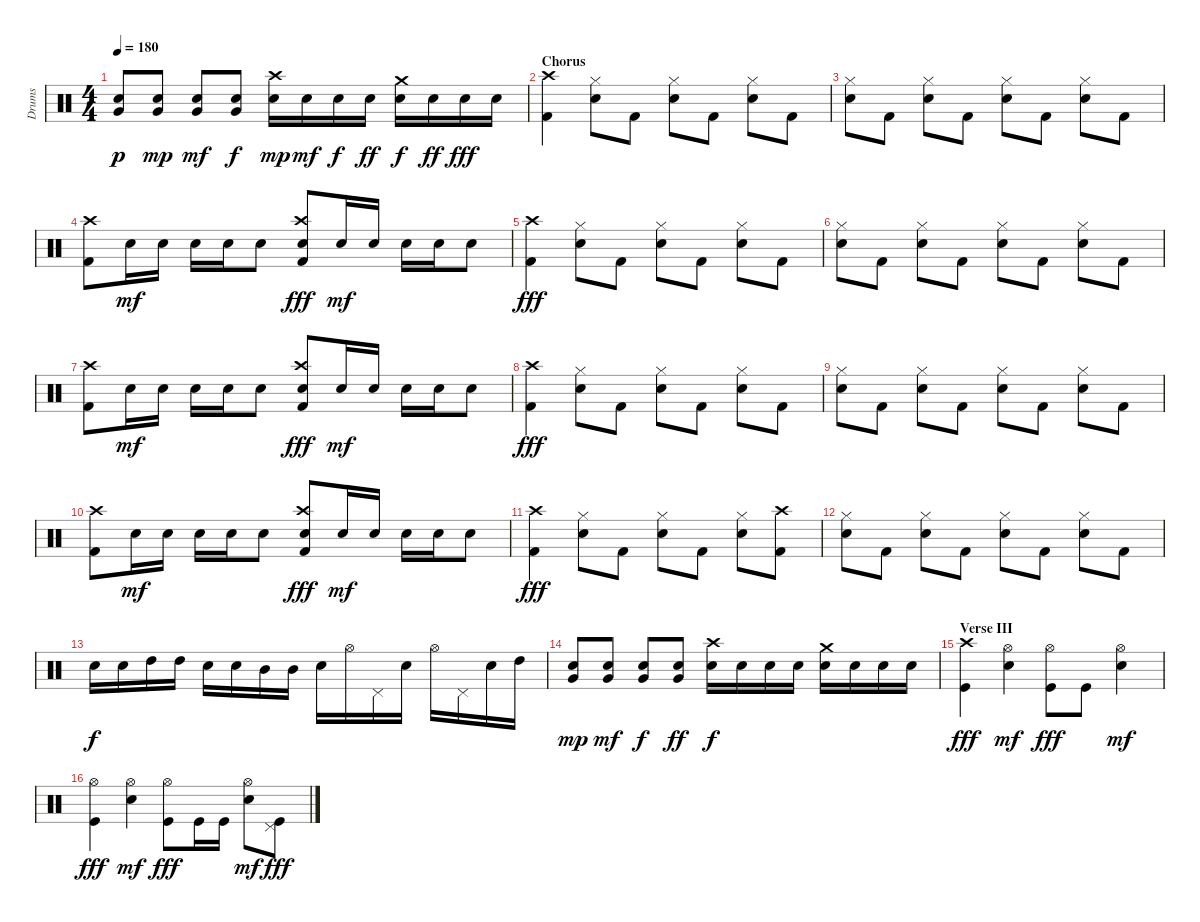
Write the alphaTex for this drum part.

\track ("Drums" "Drums") {instrument percussion}
\staff {score}
\articulation defaults
\ts (4 4)
\tempo 180
\clef neutral
\ks c
("Electric Snare (hit)" "Very Low Tom (hit)").8{dy p} ("Electric Snare (hit)" "Very Low Tom (hit)").8{dy mp} ("Electric Snare (hit)" "Very Low Tom (hit)").8{dy mf} ("Electric Snare (hit)" "Very Low Tom (hit)").8{dy f} ("Electric Snare (hit)" "Crash high (hit)").16{dy mp} "Electric Snare (hit)".16{dy mf} "Electric Snare (hit)".16{dy f} "Electric Snare (hit)".16{dy ff} ("Electric Snare (hit)" "Crash medium (hit)").16{dy f} "Electric Snare (hit)".16{dy ff} "Electric Snare (hit)".16{dy fff} "Electric Snare (hit)".16 |
\section ("" "Chorus")
("Crash high (hit)" "Kick (hit) 2").4 ("Hi-Hat (closed)" "Electric Snare (hit)").8 "Kick (hit) 2".8 ("Hi-Hat (closed)" "Electric Snare (hit)").8 "Kick (hit) 2".8 ("Hi-Hat (closed)" "Electric Snare (hit)").8 "Kick (hit) 2".8 |
("Hi-Hat (closed)" "Electric Snare (hit)").8 "Kick (hit) 2".8 ("Hi-Hat (closed)" "Electric Snare (hit)").8 "Kick (hit) 2".8 ("Hi-Hat (closed)" "Electric Snare (hit)").8 "Kick (hit) 2".8 ("Hi-Hat (closed)" "Electric Snare (hit)").8 "Kick (hit) 2".8 |
("Crash high (hit)" "Kick (hit) 2").8 "Electric Snare (hit)".16{dy mf} "Electric Snare (hit)".16 "Electric Snare (hit)".16 "Electric Snare (hit)".16 "Electric Snare (hit)".8 ("Crash high (hit)" "Electric Snare (hit)" "Kick (hit) 2").8{dy fff} "Electric Snare (hit)".16{dy mf} "Electric Snare (hit)".16 "Electric Snare (hit)".16 "Electric Snare (hit)".16 "Electric Snare (hit)".8 |
("Crash high (hit)" "Kick (hit) 2").4{dy fff} ("Hi-Hat (closed)" "Electric Snare (hit)").8 "Kick (hit) 2".8 ("Hi-Hat (closed)" "Electric Snare (hit)").8 "Kick (hit) 2".8 ("Hi-Hat (closed)" "Electric Snare (hit)").8 "Kick (hit) 2".8 |
("Hi-Hat (closed)" "Electric Snare (hit)").8 "Kick (hit) 2".8 ("Hi-Hat (closed)" "Electric Snare (hit)").8 "Kick (hit) 2".8 ("Hi-Hat (closed)" "Electric Snare (hit)").8 "Kick (hit) 2".8 ("Hi-Hat (closed)" "Electric Snare (hit)").8 "Kick (hit) 2".8 |
("Crash high (hit)" "Kick (hit) 2").8 "Electric Snare (hit)".16{dy mf} "Electric Snare (hit)".16 "Electric Snare (hit)".16 "Electric Snare (hit)".16 "Electric Snare (hit)".8 ("Crash high (hit)" "Electric Snare (hit)" "Kick (hit) 2").8{dy fff} "Electric Snare (hit)".16{dy mf} "Electric Snare (hit)".16 "Electric Snare (hit)".16 "Electric Snare (hit)".16 "Electric Snare (hit)".8 |
("Crash high (hit)" "Kick (hit) 2").4{dy fff} ("Hi-Hat (closed)" "Electric Snare (hit)").8 "Kick (hit) 2".8 ("Hi-Hat (closed)" "Electric Snare (hit)").8 "Kick (hit) 2".8 ("Hi-Hat (closed)" "Electric Snare (hit)").8 "Kick (hit) 2".8 |
("Hi-Hat (closed)" "Electric Snare (hit)").8 "Kick (hit) 2".8 ("Hi-Hat (closed)" "Electric Snare (hit)").8 "Kick (hit) 2".8 ("Hi-Hat (closed)" "Electric Snare (hit)").8 "Kick (hit) 2".8 ("Hi-Hat (closed)" "Electric Snare (hit)").8 "Kick (hit) 2".8 |
("Crash high (hit)" "Kick (hit) 2").8 "Electric Snare (hit)".16{dy mf} "Electric Snare (hit)".16 "Electric Snare (hit)".16 "Electric Snare (hit)".16 "Electric Snare (hit)".8 ("Crash high (hit)" "Electric Snare (hit)" "Kick (hit) 2").8{dy fff} "Electric Snare (hit)".16{dy mf} "Electric Snare (hit)".16 "Electric Snare (hit)".16 "Electric Snare (hit)".16 "Electric Snare (hit)".8 |
("Crash high (hit)" "Kick (hit) 2").4{dy fff} ("Hi-Hat (closed)" "Electric Snare (hit)").8 "Kick (hit) 2".8 ("Hi-Hat (closed)" "Electric Snare (hit)").8 "Kick (hit) 2".8 ("Hi-Hat (closed)" "Electric Snare (hit)").8 ("Crash high (hit)" "Kick (hit) 2").8 |
("Hi-Hat (closed)" "Electric Snare (hit)").8 "Kick (hit) 2".8 ("Hi-Hat (closed)" "Electric Snare (hit)").8 "Kick (hit) 2".8 ("Hi-Hat (closed)" "Electric Snare (hit)").8 "Kick (hit) 2".8 ("Hi-Hat (closed)" "Electric Snare (hit)").8 "Kick (hit) 2".8 |
"Electric Snare (hit)".16{dy f} "Electric Snare (hit)".16 "High Tom (hit)".16 "High Tom (hit)".16 "Electric Snare (hit)".16 "Electric Snare (hit)".16 "Mid Tom (hit)".16 "Mid Tom (hit)".16 "Electric Snare (hit)".16 "Hi-Hat (open)".16 "Pedal Hi-Hat (hit)".16 "Electric Snare (hit)".16 "Hi-Hat (open)".16 "Pedal Hi-Hat (hit)".16 "Electric Snare (hit)".16 "High Tom (hit)".16 |
("Electric Snare (hit)" "Very Low Tom (hit)").8{dy mp} ("Electric Snare (hit)" "Very Low Tom (hit)").8{dy mf} ("Electric Snare (hit)" "Very Low Tom (hit)").8{dy f} ("Electric Snare (hit)" "Very Low Tom (hit)").8{dy ff} ("Electric Snare (hit)" "Crash high (hit)").16{dy f} "Electric Snare (hit)".16 "Electric Snare (hit)".16 "Electric Snare (hit)".16 ("Electric Snare (hit)" "Crash medium (hit)").16 "Electric Snare (hit)".16 "Electric Snare (hit)".16 "Electric Snare (hit)".16 |
\section ("" "Verse III")
("Crash high (hit)" "Kick (hit)").4{dy fff} ("Hi-Hat (open)" "Electric Snare (hit)").4{dy mf} ("Hi-Hat (open)" "Kick (hit)").8{dy fff} "Kick (hit)".8 ("Hi-Hat (open)" "Electric Snare (hit)").4{dy mf} |
("Hi-Hat (open)" "Kick (hit)").4{dy fff} ("Hi-Hat (open)" "Electric Snare (hit)").4{dy mf} ("Hi-Hat (open)" "Kick (hit)").8{dy fff} "Kick (hit)".16 "Kick (hit)".16 ("Hi-Hat (open)" "Electric Snare (hit)").8{dy mf} ("Pedal Hi-Hat (hit)" "Kick (hit)").8{dy fff}
